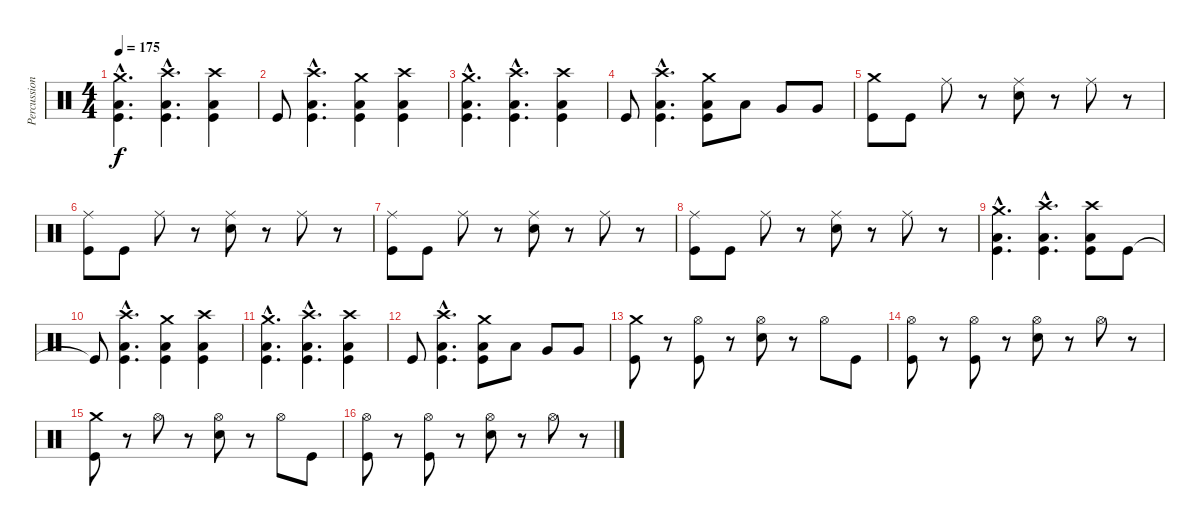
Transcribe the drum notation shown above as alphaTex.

\track ("Percussions" "Percussion") {instrument percussion}
\staff {score}
\articulation defaults
\ts (4 4)
\tempo 175
\clef neutral
\ks c
("Crash medium (hit)"{hac} "Low Tom (hit)"{hac} "Kick (hit)"{hac}).4{d dy f} ("Crash high (hit)"{hac} "Low Tom (hit)"{hac} "Kick (hit)"{hac}).4{d} ("Crash high (hit)" "Low Tom (hit)" "Kick (hit)").4 |
"Kick (hit)".8 ("Crash high (hit)"{hac} "Low Tom (hit)"{hac} "Kick (hit)"{hac}).4{d} ("Crash medium (hit)" "Low Tom (hit)" "Kick (hit)").4 ("Crash high (hit)" "Low Tom (hit)" "Kick (hit)").4 |
("Crash medium (hit)"{hac} "Low Tom (hit)"{hac} "Kick (hit)"{hac}).4{d} ("Crash high (hit)"{hac} "Low Tom (hit)"{hac} "Kick (hit)"{hac}).4{d} ("Crash high (hit)" "Low Tom (hit)" "Kick (hit)").4 |
"Kick (hit)".8 ("Crash high (hit)"{hac} "Low Tom (hit)"{hac} "Kick (hit)"{hac}).4{d} ("Crash medium (hit)" "Low Tom (hit)" "Kick (hit)").8 "Low Tom (hit)".8 "Very Low Tom (hit)".8 "Very Low Tom (hit)".8 |
("Crash medium (hit)" "Kick (hit)").8 "Kick (hit)".8 "Ride (middle)".8 r.8 ("Ride (middle)" "Snare (hit) 2").8 r.8 "Ride (middle)".8 r.8 |
("Ride (middle)" "Kick (hit)").8 "Kick (hit)".8 "Ride (middle)".8 r.8 ("Ride (middle)" "Snare (hit) 2").8 r.8 "Ride (middle)".8 r.8 |
("Ride (middle)" "Kick (hit)").8 "Kick (hit)".8 "Ride (middle)".8 r.8 ("Ride (middle)" "Snare (hit) 2").8 r.8 "Ride (middle)".8 r.8 |
("Ride (middle)" "Kick (hit)").8 "Kick (hit)".8 "Ride (middle)".8 r.8 ("Ride (middle)" "Snare (hit) 2").8 r.8 "Ride (middle)".8 r.8 |
("Crash medium (hit)"{hac} "Low Tom (hit)"{hac} "Kick (hit)"{hac}).4{d} ("Crash high (hit)"{hac} "Low Tom (hit)"{hac} "Kick (hit)"{hac}).4{d} ("Crash high (hit)" "Low Tom (hit)" "Kick (hit)").8 "Kick (hit)".8 |
"Kick (hit)"{t}.8 ("Crash high (hit)"{hac} "Low Tom (hit)"{hac} "Kick (hit)"{hac}).4{d} ("Crash medium (hit)" "Low Tom (hit)" "Kick (hit)").4 ("Crash high (hit)" "Low Tom (hit)" "Kick (hit)").4 |
("Crash medium (hit)"{hac} "Low Tom (hit)"{hac} "Kick (hit)"{hac}).4{d} ("Crash high (hit)"{hac} "Low Tom (hit)"{hac} "Kick (hit)"{hac}).4{d} ("Crash high (hit)" "Low Tom (hit)" "Kick (hit)").4 |
"Kick (hit)".8 ("Crash high (hit)"{hac} "Low Tom (hit)"{hac} "Kick (hit)"{hac}).4{d} ("Crash medium (hit)" "Low Tom (hit)" "Kick (hit)").8 "Low Tom (hit)".8 "Very Low Tom (hit)".8 "Very Low Tom (hit)".8 |
("Crash medium (hit)" "Kick (hit)").8 r.8 ("Hi-Hat (open)" "Kick (hit)").8 r.8 ("Hi-Hat (open)" "Snare (hit) 2").8 r.8 "Hi-Hat (open)".8 "Kick (hit)".8 |
("Hi-Hat (open)" "Kick (hit)").8 r.8 ("Hi-Hat (open)" "Kick (hit)").8 r.8 ("Hi-Hat (open)" "Snare (hit) 2").8 r.8 "Hi-Hat (open)".8 r.8 |
("Crash medium (hit)" "Kick (hit)").8 r.8 "Hi-Hat (open)".8 r.8 ("Hi-Hat (open)" "Snare (hit) 2").8 r.8 "Hi-Hat (open)".8 "Kick (hit)".8 |
("Hi-Hat (open)" "Kick (hit)").8 r.8 ("Hi-Hat (open)" "Kick (hit)").8 r.8 ("Hi-Hat (open)" "Snare (hit) 2").8 r.8 "Hi-Hat (open)".8 r.8
